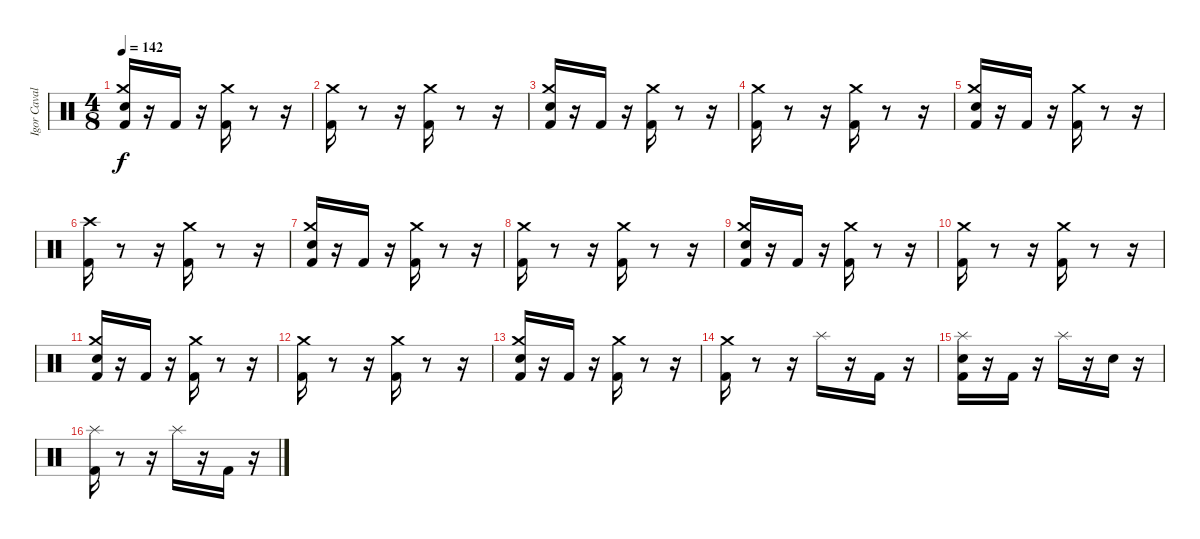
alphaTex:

\track ("Igor Cavalera" "Igor Caval") {instrument percussion}
\staff {score}
\articulation defaults
\ts (4 8)
\tempo 142
\clef neutral
\ks c
("Electric Snare (hit)" "Crash medium (hit)" "Kick (hit) 2").16{dy f} r.16 "Kick (hit) 2".16 r.16 ("Kick (hit) 2" "Crash medium (hit)").16 r.8 r.16 |
("Kick (hit) 2" "Crash medium (hit)").16 r.8 r.16 ("Kick (hit) 2" "Crash medium (hit)").16 r.8 r.16 |
("Electric Snare (hit)" "Crash medium (hit)" "Kick (hit) 2").16 r.16 "Kick (hit) 2".16 r.16 ("Kick (hit) 2" "Crash medium (hit)").16 r.8 r.16 |
("Kick (hit) 2" "Crash medium (hit)").16 r.8 r.16 ("Kick (hit) 2" "Crash medium (hit)").16 r.8 r.16 |
("Electric Snare (hit)" "Crash medium (hit)" "Kick (hit) 2").16 r.16 "Kick (hit) 2".16 r.16 ("Kick (hit) 2" "Crash medium (hit)").16 r.8 r.16 |
("Kick (hit) 2" "Crash high (hit)").16 r.8 r.16 ("Kick (hit) 2" "Crash medium (hit)").16 r.8 r.16 |
("Electric Snare (hit)" "Crash medium (hit)" "Kick (hit) 2").16 r.16 "Kick (hit) 2".16 r.16 ("Kick (hit) 2" "Crash medium (hit)").16 r.8 r.16 |
("Kick (hit) 2" "Crash medium (hit)").16 r.8 r.16 ("Kick (hit) 2" "Crash medium (hit)").16 r.8 r.16 |
("Electric Snare (hit)" "Crash medium (hit)" "Kick (hit) 2").16 r.16 "Kick (hit) 2".16 r.16 ("Kick (hit) 2" "Crash medium (hit)").16 r.8 r.16 |
("Kick (hit) 2" "Crash medium (hit)").16 r.8 r.16 ("Kick (hit) 2" "Crash medium (hit)").16 r.8 r.16 |
("Electric Snare (hit)" "Crash medium (hit)" "Kick (hit) 2").16 r.16 "Kick (hit) 2".16 r.16 ("Kick (hit) 2" "Crash medium (hit)").16 r.8 r.16 |
("Kick (hit) 2" "Crash medium (hit)").16 r.8 r.16 ("Kick (hit) 2" "Crash medium (hit)").16 r.8 r.16 |
("Electric Snare (hit)" "Crash medium (hit)" "Kick (hit) 2").16 r.16 "Kick (hit) 2".16 r.16 ("Kick (hit) 2" "Crash medium (hit)").16 r.8 r.16 |
("Kick (hit) 2" "Crash medium (hit)").16 r.8 r.16 "Splash (hit)".16 r.16 "Kick (hit) 2".16 r.16 |
("Electric Snare (hit)" "Kick (hit) 2" "Splash (hit)").16 r.16 "Kick (hit) 2".16 r.16 "Splash (hit)".16 r.16 "Electric Snare (hit)".16 r.16 |
("Kick (hit) 2" "Splash (hit)").16 r.8 r.16 "Splash (hit)".16 r.16 "Kick (hit) 2".16 r.16
